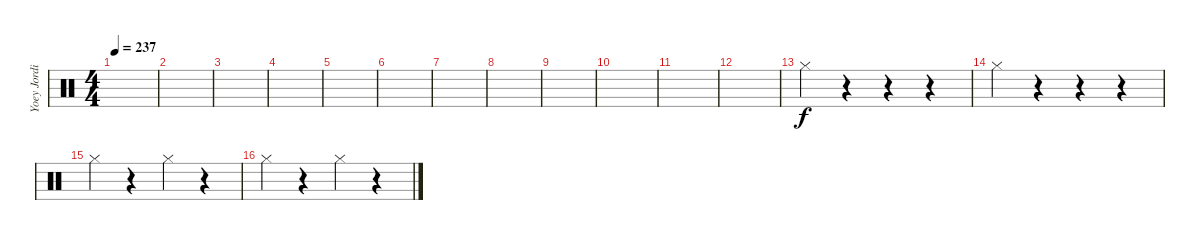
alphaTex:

\track ("Yoey Jordison" "Yoey Jordi") {instrument percussion}
\staff {score}
\articulation defaults
\ts (4 4)
\tempo 237
\clef neutral
\ks c
|
|
|
|
|
|
|
|
|
|
|
|
"Hi-Hat (closed)".4 r.4 r.4 r.4 |
"Hi-Hat (closed)".4 r.4 r.4 r.4 |
"Hi-Hat (closed)".4 r.4 "Hi-Hat (closed)".4 r.4 |
"Hi-Hat (closed)".4 r.4 "Hi-Hat (closed)".4 r.4
